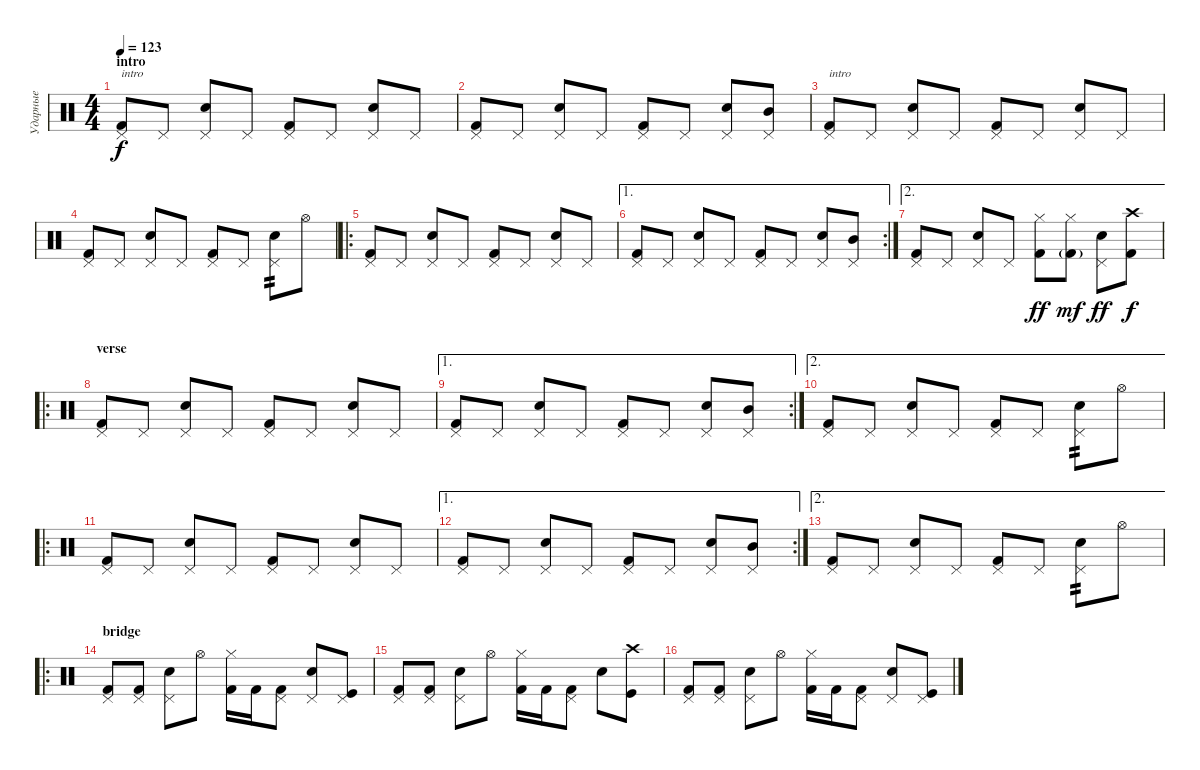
\track ("Ударные" "Ударные") {instrument percussion}
\staff {score}
\articulation defaults
\ts (4 4)
\section ("" "intro")
\tempo 123
\clef neutral
\ks c
("Pedal Hi-Hat (hit)" "Kick (hit) 2").8{txt "intro" dy f} "Pedal Hi-Hat (hit)".8 ("Pedal Hi-Hat (hit)" "Snare (hit) 2").8 "Pedal Hi-Hat (hit)".8 ("Pedal Hi-Hat (hit)" "Kick (hit) 2").8 "Pedal Hi-Hat (hit)".8 ("Pedal Hi-Hat (hit)" "Snare (hit) 2").8 "Pedal Hi-Hat (hit)".8 |
("Pedal Hi-Hat (hit)" "Kick (hit) 2").8 "Pedal Hi-Hat (hit)".8 ("Pedal Hi-Hat (hit)" "Snare (hit) 2").8 "Pedal Hi-Hat (hit)".8 ("Pedal Hi-Hat (hit)" "Kick (hit) 2").8 "Pedal Hi-Hat (hit)".8 ("Pedal Hi-Hat (hit)" "Snare (hit) 2").8 ("Pedal Hi-Hat (hit)" "Mid Tom (hit)").8 |
("Pedal Hi-Hat (hit)" "Kick (hit) 2").8{txt "intro"} "Pedal Hi-Hat (hit)".8 ("Pedal Hi-Hat (hit)" "Snare (hit) 2").8 "Pedal Hi-Hat (hit)".8 ("Pedal Hi-Hat (hit)" "Kick (hit) 2").8 "Pedal Hi-Hat (hit)".8 ("Pedal Hi-Hat (hit)" "Snare (hit) 2").8 "Pedal Hi-Hat (hit)".8 |
("Pedal Hi-Hat (hit)" "Kick (hit) 2").8 "Pedal Hi-Hat (hit)".8 ("Pedal Hi-Hat (hit)" "Snare (hit) 2").8 "Pedal Hi-Hat (hit)".8 ("Pedal Hi-Hat (hit)" "Kick (hit) 2").8 "Pedal Hi-Hat (hit)".8 ("Pedal Hi-Hat (hit)" "Snare (hit) 2").8{tp 2} "Hi-Hat (open)".8 |
\ro
("Pedal Hi-Hat (hit)" "Kick (hit) 2").8 "Pedal Hi-Hat (hit)".8 ("Pedal Hi-Hat (hit)" "Snare (hit) 2").8 "Pedal Hi-Hat (hit)".8 ("Pedal Hi-Hat (hit)" "Kick (hit) 2").8 "Pedal Hi-Hat (hit)".8 ("Pedal Hi-Hat (hit)" "Snare (hit) 2").8 "Pedal Hi-Hat (hit)".8 |
\ae 1
\rc 2
("Pedal Hi-Hat (hit)" "Kick (hit) 2").8 "Pedal Hi-Hat (hit)".8 ("Pedal Hi-Hat (hit)" "Snare (hit) 2").8 "Pedal Hi-Hat (hit)".8 ("Pedal Hi-Hat (hit)" "Kick (hit) 2").8 "Pedal Hi-Hat (hit)".8 ("Pedal Hi-Hat (hit)" "Snare (hit) 2").8 ("Pedal Hi-Hat (hit)" "Mid Tom (hit)").8 |
\ae 2
("Pedal Hi-Hat (hit)" "Kick (hit) 2").8 "Pedal Hi-Hat (hit)".8 ("Pedal Hi-Hat (hit)" "Snare (hit) 2").8 "Pedal Hi-Hat (hit)".8 ("Hi-Hat (closed)" "Kick (hit) 2").8{dy ff} ("Hi-Hat (closed)" "Kick (hit) 2"{g}).8{dy mf} ("Pedal Hi-Hat (hit)" "Snare (hit) 2").8{dy ff} ("Crash high (hit)" "Kick (hit) 2").8{dy f} |
\ro
\section ("" "verse")
("Pedal Hi-Hat (hit)" "Kick (hit) 2").8 "Pedal Hi-Hat (hit)".8 ("Pedal Hi-Hat (hit)" "Snare (hit) 2").8 "Pedal Hi-Hat (hit)".8 ("Pedal Hi-Hat (hit)" "Kick (hit) 2").8 "Pedal Hi-Hat (hit)".8 ("Pedal Hi-Hat (hit)" "Snare (hit) 2").8 "Pedal Hi-Hat (hit)".8 |
\ae 1
\rc 2
("Pedal Hi-Hat (hit)" "Kick (hit) 2").8 "Pedal Hi-Hat (hit)".8 ("Pedal Hi-Hat (hit)" "Snare (hit) 2").8 "Pedal Hi-Hat (hit)".8 ("Pedal Hi-Hat (hit)" "Kick (hit) 2").8 "Pedal Hi-Hat (hit)".8 ("Pedal Hi-Hat (hit)" "Snare (hit) 2").8 ("Pedal Hi-Hat (hit)" "Mid Tom (hit)").8 |
\ae 2
("Pedal Hi-Hat (hit)" "Kick (hit) 2").8 "Pedal Hi-Hat (hit)".8 ("Pedal Hi-Hat (hit)" "Snare (hit) 2").8 "Pedal Hi-Hat (hit)".8 ("Pedal Hi-Hat (hit)" "Kick (hit) 2").8 "Pedal Hi-Hat (hit)".8 ("Pedal Hi-Hat (hit)" "Snare (hit) 2").8{tp 2} "Hi-Hat (open)".8 |
\ro
("Pedal Hi-Hat (hit)" "Kick (hit) 2").8 "Pedal Hi-Hat (hit)".8 ("Pedal Hi-Hat (hit)" "Snare (hit) 2").8 "Pedal Hi-Hat (hit)".8 ("Pedal Hi-Hat (hit)" "Kick (hit) 2").8 "Pedal Hi-Hat (hit)".8 ("Pedal Hi-Hat (hit)" "Snare (hit) 2").8 "Pedal Hi-Hat (hit)".8 |
\ae 1
\rc 2
("Pedal Hi-Hat (hit)" "Kick (hit) 2").8 "Pedal Hi-Hat (hit)".8 ("Pedal Hi-Hat (hit)" "Snare (hit) 2").8 "Pedal Hi-Hat (hit)".8 ("Pedal Hi-Hat (hit)" "Kick (hit) 2").8 "Pedal Hi-Hat (hit)".8 ("Pedal Hi-Hat (hit)" "Snare (hit) 2").8 ("Pedal Hi-Hat (hit)" "Mid Tom (hit)").8 |
\ae 2
("Pedal Hi-Hat (hit)" "Kick (hit) 2").8 "Pedal Hi-Hat (hit)".8 ("Pedal Hi-Hat (hit)" "Snare (hit) 2").8 "Pedal Hi-Hat (hit)".8 ("Pedal Hi-Hat (hit)" "Kick (hit) 2").8 "Pedal Hi-Hat (hit)".8 ("Pedal Hi-Hat (hit)" "Snare (hit) 2").8{tp 2} "Hi-Hat (open)".8 |
\ro
\section ("" "bridge")
("Pedal Hi-Hat (hit)" "Kick (hit) 2").8 ("Pedal Hi-Hat (hit)" "Kick (hit) 2").8 ("Pedal Hi-Hat (hit)" "Snare (hit) 2").8 "Hi-Hat (open)".8 ("Hi-Hat (closed)" "Kick (hit) 2").16 "Kick (hit) 2".16 ("Pedal Hi-Hat (hit)" "Kick (hit) 2").8 ("Pedal Hi-Hat (hit)" "Snare (hit) 2").8 ("Pedal Hi-Hat (hit)" "Kick (hit)").8 |
("Pedal Hi-Hat (hit)" "Kick (hit) 2").8 ("Pedal Hi-Hat (hit)" "Kick (hit) 2").8 ("Pedal Hi-Hat (hit)" "Snare (hit) 2").8 "Hi-Hat (open)".8 ("Hi-Hat (closed)" "Kick (hit) 2").16 "Kick (hit) 2".16 ("Pedal Hi-Hat (hit)" "Kick (hit) 2").8 "Snare (hit) 2".8 ("Crash high (hit)" "Kick (hit)").8 |
("Pedal Hi-Hat (hit)" "Kick (hit) 2").8 ("Pedal Hi-Hat (hit)" "Kick (hit) 2").8 ("Pedal Hi-Hat (hit)" "Snare (hit) 2").8 "Hi-Hat (open)".8 ("Hi-Hat (closed)" "Kick (hit) 2").16 "Kick (hit) 2".16 ("Pedal Hi-Hat (hit)" "Kick (hit) 2").8 ("Pedal Hi-Hat (hit)" "Snare (hit) 2").8 ("Pedal Hi-Hat (hit)" "Kick (hit)").8
